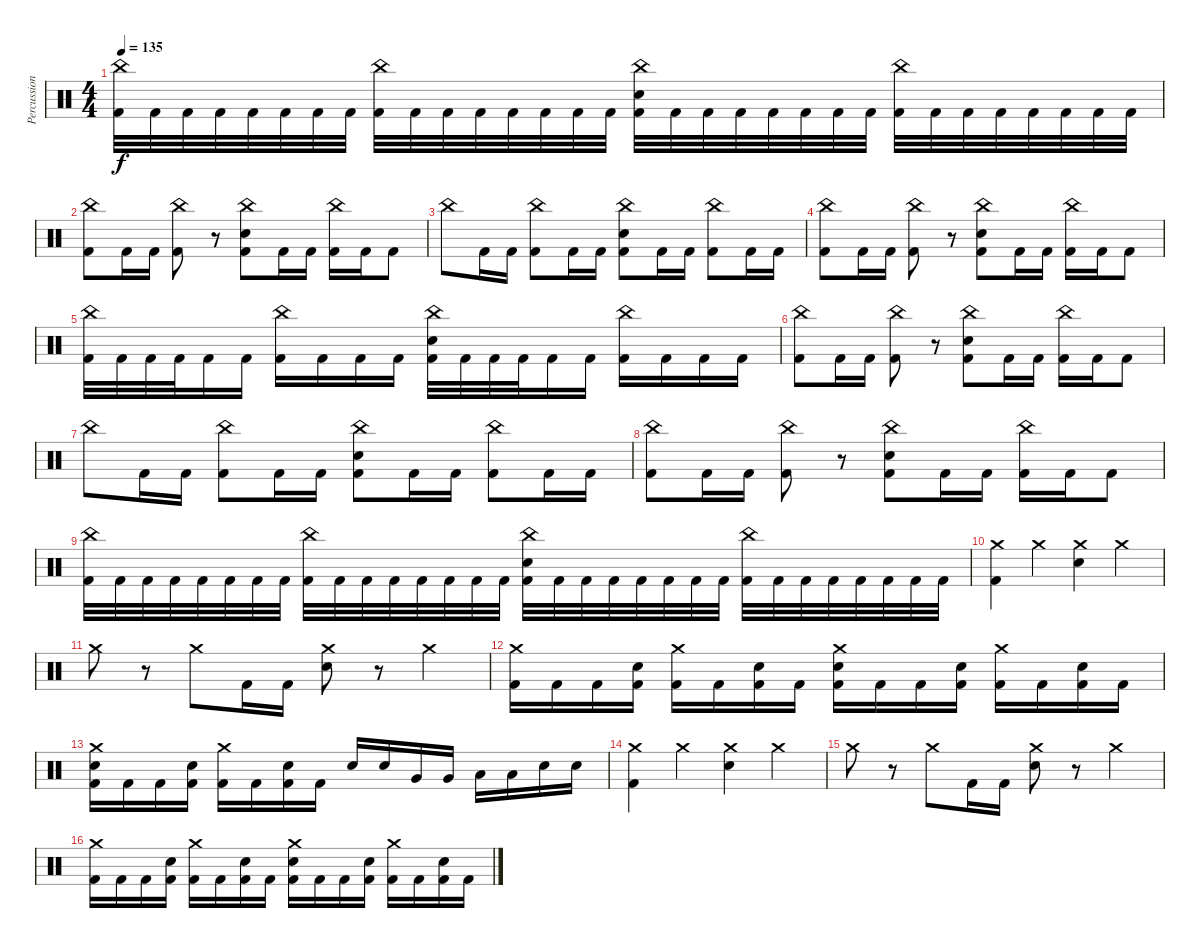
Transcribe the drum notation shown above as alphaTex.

\track ("Percussions" "Percussion") {instrument percussion}
\staff {score}
\articulation defaults
\ts (4 4)
\tempo 135
\clef neutral
\ks c
("China (hit)" "Kick (hit) 2").32{dy f} "Kick (hit) 2".32 "Kick (hit) 2".32 "Kick (hit) 2".32 "Kick (hit) 2".32 "Kick (hit) 2".32 "Kick (hit) 2".32 "Kick (hit) 2".32 ("China (hit)" "Kick (hit) 2").32 "Kick (hit) 2".32 "Kick (hit) 2".32 "Kick (hit) 2".32 "Kick (hit) 2".32 "Kick (hit) 2".32 "Kick (hit) 2".32 "Kick (hit) 2".32 ("China (hit)" "Electric Snare (hit)" "Kick (hit) 2").32 "Kick (hit) 2".32 "Kick (hit) 2".32 "Kick (hit) 2".32 "Kick (hit) 2".32 "Kick (hit) 2".32 "Kick (hit) 2".32 "Kick (hit) 2".32 ("China (hit)" "Kick (hit) 2").32 "Kick (hit) 2".32 "Kick (hit) 2".32 "Kick (hit) 2".32 "Kick (hit) 2".32 "Kick (hit) 2".32 "Kick (hit) 2".32 "Kick (hit) 2".32 |
("China (hit)" "Kick (hit) 2").8 "Kick (hit) 2".16 "Kick (hit) 2".16 ("China (hit)" "Kick (hit) 2").8 r.8 ("China (hit)" "Electric Snare (hit)" "Kick (hit) 2").8 "Kick (hit) 2".16 "Kick (hit) 2".16 ("China (hit)" "Kick (hit) 2").16 "Kick (hit) 2".16 "Kick (hit) 2".8 |
"China (hit)".8 "Kick (hit) 2".16 "Kick (hit) 2".16 ("China (hit)" "Kick (hit) 2").8 "Kick (hit) 2".16 "Kick (hit) 2".16 ("China (hit)" "Electric Snare (hit)" "Kick (hit) 2").8 "Kick (hit) 2".16 "Kick (hit) 2".16 ("China (hit)" "Kick (hit) 2").8 "Kick (hit) 2".16 "Kick (hit) 2".16 |
("China (hit)" "Kick (hit) 2").8 "Kick (hit) 2".16 "Kick (hit) 2".16 ("China (hit)" "Kick (hit) 2").8 r.8 ("China (hit)" "Electric Snare (hit)" "Kick (hit) 2").8 "Kick (hit) 2".16 "Kick (hit) 2".16 ("China (hit)" "Kick (hit) 2").16 "Kick (hit) 2".16 "Kick (hit) 2".8 |
("China (hit)" "Kick (hit) 2").32 "Kick (hit) 2".32 "Kick (hit) 2".32 "Kick (hit) 2".32 "Kick (hit) 2".16 "Kick (hit) 2".16 ("China (hit)" "Kick (hit) 2").16 "Kick (hit) 2".16 "Kick (hit) 2".16 "Kick (hit) 2".16 ("China (hit)" "Electric Snare (hit)" "Kick (hit) 2").32 "Kick (hit) 2".32 "Kick (hit) 2".32 "Kick (hit) 2".32 "Kick (hit) 2".16 "Kick (hit) 2".16 ("China (hit)" "Kick (hit) 2").16 "Kick (hit) 2".16 "Kick (hit) 2".16 "Kick (hit) 2".16 |
("China (hit)" "Kick (hit) 2").8 "Kick (hit) 2".16 "Kick (hit) 2".16 ("China (hit)" "Kick (hit) 2").8 r.8 ("China (hit)" "Electric Snare (hit)" "Kick (hit) 2").8 "Kick (hit) 2".16 "Kick (hit) 2".16 ("China (hit)" "Kick (hit) 2").16 "Kick (hit) 2".16 "Kick (hit) 2".8 |
"China (hit)".8 "Kick (hit) 2".16 "Kick (hit) 2".16 ("China (hit)" "Kick (hit) 2").8 "Kick (hit) 2".16 "Kick (hit) 2".16 ("China (hit)" "Electric Snare (hit)" "Kick (hit) 2").8 "Kick (hit) 2".16 "Kick (hit) 2".16 ("China (hit)" "Kick (hit) 2").8 "Kick (hit) 2".16 "Kick (hit) 2".16 |
("China (hit)" "Kick (hit) 2").8 "Kick (hit) 2".16 "Kick (hit) 2".16 ("China (hit)" "Kick (hit) 2").8 r.8 ("China (hit)" "Electric Snare (hit)" "Kick (hit) 2").8 "Kick (hit) 2".16 "Kick (hit) 2".16 ("China (hit)" "Kick (hit) 2").16 "Kick (hit) 2".16 "Kick (hit) 2".8 |
("China (hit)" "Kick (hit) 2").32 "Kick (hit) 2".32 "Kick (hit) 2".32 "Kick (hit) 2".32 "Kick (hit) 2".32 "Kick (hit) 2".32 "Kick (hit) 2".32 "Kick (hit) 2".32 ("China (hit)" "Kick (hit) 2").32 "Kick (hit) 2".32 "Kick (hit) 2".32 "Kick (hit) 2".32 "Kick (hit) 2".32 "Kick (hit) 2".32 "Kick (hit) 2".32 "Kick (hit) 2".32 ("China (hit)" "Electric Snare (hit)" "Kick (hit) 2").32 "Kick (hit) 2".32 "Kick (hit) 2".32 "Kick (hit) 2".32 "Kick (hit) 2".32 "Kick (hit) 2".32 "Kick (hit) 2".32 "Kick (hit) 2".32 ("China (hit)" "Kick (hit) 2").32 "Kick (hit) 2".32 "Kick (hit) 2".32 "Kick (hit) 2".32 "Kick (hit) 2".32 "Kick (hit) 2".32 "Kick (hit) 2".32 "Kick (hit) 2".32 |
("Crash medium (hit)" "Kick (hit) 2").4 "Crash medium (hit)".4 ("Crash medium (hit)" "Electric Snare (hit)").4 "Crash medium (hit)".4 |
"Crash medium (hit)".8 r.8 "Crash medium (hit)".8 "Kick (hit) 2".16 "Kick (hit) 2".16 ("Crash medium (hit)" "Electric Snare (hit)").8 r.8 "Crash medium (hit)".4 |
("Crash medium (hit)" "Kick (hit) 2").16 "Kick (hit) 2".16 "Kick (hit) 2".16 ("Electric Snare (hit)" "Kick (hit) 2").16 ("Crash medium (hit)" "Kick (hit) 2").16 "Kick (hit) 2".16 ("Electric Snare (hit)" "Kick (hit) 2").16 "Kick (hit) 2".16 ("Crash medium (hit)" "Electric Snare (hit)" "Kick (hit) 2").16 "Kick (hit) 2".16 "Kick (hit) 2".16 ("Electric Snare (hit)" "Kick (hit) 2").16 ("Crash medium (hit)" "Kick (hit) 2").16 "Kick (hit) 2".16 ("Electric Snare (hit)" "Kick (hit) 2").16 "Kick (hit) 2".16 |
("Crash medium (hit)" "Electric Snare (hit)" "Kick (hit) 2").16 "Kick (hit) 2".16 "Kick (hit) 2".16 ("Electric Snare (hit)" "Kick (hit) 2").16 ("Crash medium (hit)" "Kick (hit) 2").16 "Kick (hit) 2".16 ("Electric Snare (hit)" "Kick (hit) 2").16 "Kick (hit) 2".16 "Electric Snare (hit)".16 "Electric Snare (hit)".16 "Very Low Tom (hit)".16 "Very Low Tom (hit)".16 "Low Floor Tom (hit)".16 "Low Floor Tom (hit)".16 "Electric Snare (hit)".16 "Electric Snare (hit)".16 |
("Crash medium (hit)" "Kick (hit) 2").4 "Crash medium (hit)".4 ("Crash medium (hit)" "Electric Snare (hit)").4 "Crash medium (hit)".4 |
"Crash medium (hit)".8 r.8 "Crash medium (hit)".8 "Kick (hit) 2".16 "Kick (hit) 2".16 ("Crash medium (hit)" "Electric Snare (hit)").8 r.8 "Crash medium (hit)".4 |
("Crash medium (hit)" "Kick (hit) 2").16 "Kick (hit) 2".16 "Kick (hit) 2".16 ("Electric Snare (hit)" "Kick (hit) 2").16 ("Crash medium (hit)" "Kick (hit) 2").16 "Kick (hit) 2".16 ("Electric Snare (hit)" "Kick (hit) 2").16 "Kick (hit) 2".16 ("Crash medium (hit)" "Electric Snare (hit)" "Kick (hit) 2").16 "Kick (hit) 2".16 "Kick (hit) 2".16 ("Electric Snare (hit)" "Kick (hit) 2").16 ("Crash medium (hit)" "Kick (hit) 2").16 "Kick (hit) 2".16 ("Electric Snare (hit)" "Kick (hit) 2").16 "Kick (hit) 2".16
